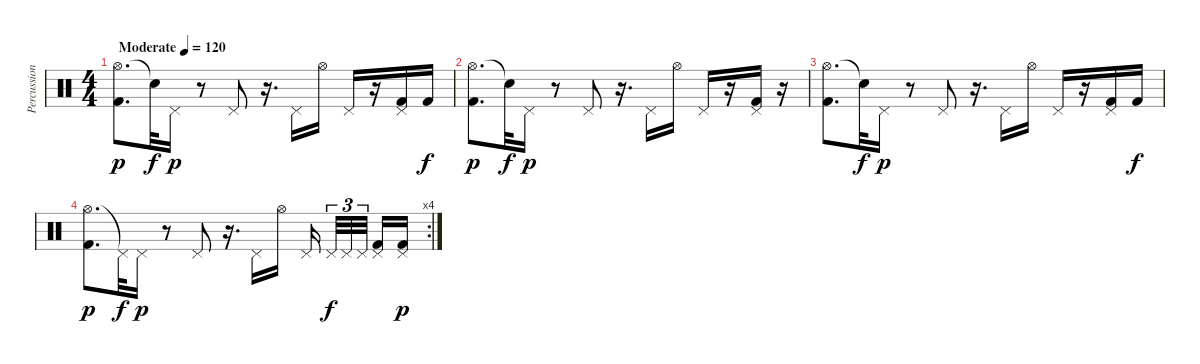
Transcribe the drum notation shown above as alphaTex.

\track ("Percussion" "Percussion") {instrument percussion}
\staff {score}
\articulation defaults
\ts (4 4)
\tempo (120 "Moderate")
\clef neutral
\ks c
("Hi-Hat (open)" "Kick (hit) 2").8{d dy p} "Snare (hit)"{t}.32{dy f} "Pedal Hi-Hat (hit)".16{dy p} r.8 "Pedal Hi-Hat (hit)".8 r.16{d} "Pedal Hi-Hat (hit)".16 "Hi-Hat (open)".16 "Pedal Hi-Hat (hit)".16 r.16 ("Pedal Hi-Hat (hit)" "Kick (hit) 2").16 "Kick (hit) 2".16{dy f} |
("Hi-Hat (open)" "Kick (hit) 2").8{d dy p} "Snare (hit)"{t}.32{dy f} "Pedal Hi-Hat (hit)".16{dy p} r.8 "Pedal Hi-Hat (hit)".8 r.16{d} "Pedal Hi-Hat (hit)".16 "Hi-Hat (open)".16 "Pedal Hi-Hat (hit)".16 r.16 ("Pedal Hi-Hat (hit)" "Kick (hit) 2").16 r.16 |
("Hi-Hat (open)" "Kick (hit) 2").8{d} "Snare (hit)"{t}.32{dy f} "Pedal Hi-Hat (hit)".16{dy p} r.8 "Pedal Hi-Hat (hit)".8 r.16{d} "Pedal Hi-Hat (hit)".16 "Hi-Hat (open)".16 "Pedal Hi-Hat (hit)".16 r.16 ("Pedal Hi-Hat (hit)" "Kick (hit) 2").16 "Kick (hit) 2".16{dy f} |
\rc 4
("Hi-Hat (open)" "Kick (hit) 2").8{d dy p} "Pedal Hi-Hat (hit)"{t}.32{dy f} "Pedal Hi-Hat (hit)".16{dy p} r.8 "Pedal Hi-Hat (hit)".8 r.16{d} "Pedal Hi-Hat (hit)".16 "Hi-Hat (open)".16 "Pedal Hi-Hat (hit)".16{beam splitsecondary} "Pedal Hi-Hat (hit)".32{tu (3 2) dy f} "Pedal Hi-Hat (hit)".32{tu (3 2)} "Pedal Hi-Hat (hit)".32{tu (3 2) beam splitsecondary} ("Pedal Hi-Hat (hit)" "Kick (hit) 2").16 ("Pedal Hi-Hat (hit)" "Kick (hit) 2").16{dy p}
